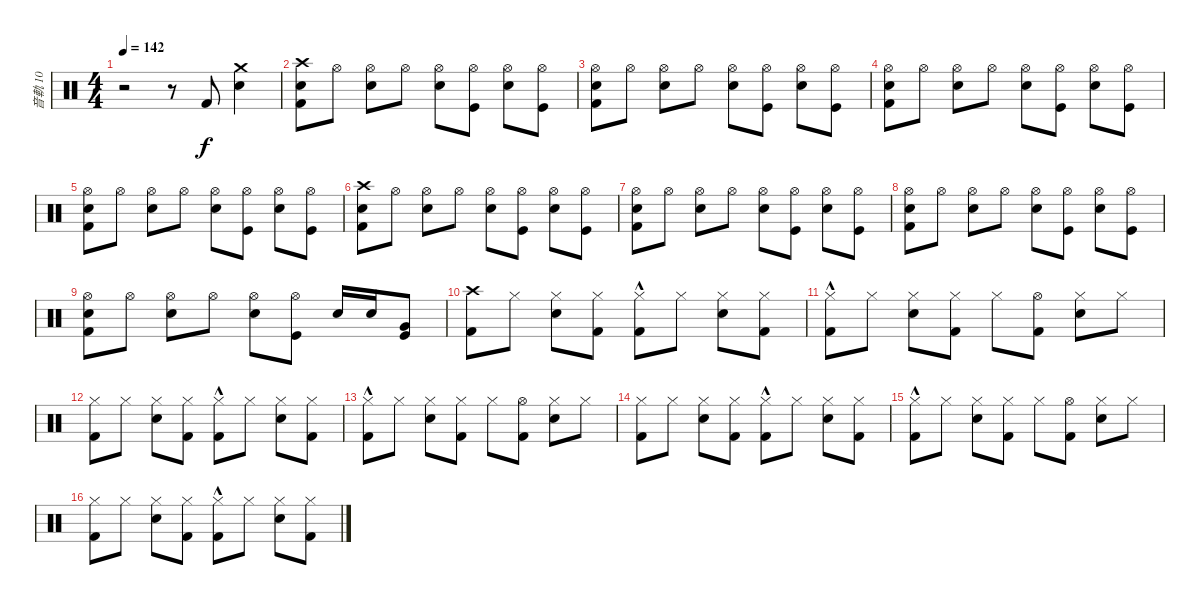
\track ("音軌 10" "音軌 10") {instrument percussion}
\staff {score}
\articulation defaults
\ts (4 4)
\tempo 142
\clef neutral
\ks c
r.2{dy f} r.8 "Kick (hit) 2".8 ("Crash medium (hit)" "Electric Snare (hit)").4 |
("Crash high (hit)" "Electric Snare (hit)" "Kick (hit) 2").8 "Hi-Hat (open)".8 ("Hi-Hat (open)" "Electric Snare (hit)").8 "Hi-Hat (open)".8 ("Hi-Hat (open)" "Electric Snare (hit)").8 ("Hi-Hat (open)" "Kick (hit)").8 ("Hi-Hat (open)" "Electric Snare (hit)").8 ("Hi-Hat (open)" "Kick (hit)").8 |
("Hi-Hat (open)" "Electric Snare (hit)" "Kick (hit) 2").8 "Hi-Hat (open)".8 ("Hi-Hat (open)" "Electric Snare (hit)").8 "Hi-Hat (open)".8 ("Hi-Hat (open)" "Electric Snare (hit)").8 ("Hi-Hat (open)" "Kick (hit)").8 ("Hi-Hat (open)" "Electric Snare (hit)").8 ("Hi-Hat (open)" "Kick (hit)").8 |
("Hi-Hat (open)" "Electric Snare (hit)" "Kick (hit) 2").8 "Hi-Hat (open)".8 ("Hi-Hat (open)" "Electric Snare (hit)").8 "Hi-Hat (open)".8 ("Hi-Hat (open)" "Electric Snare (hit)").8 ("Hi-Hat (open)" "Kick (hit)").8 ("Hi-Hat (open)" "Electric Snare (hit)").8 ("Hi-Hat (open)" "Kick (hit)").8 |
("Hi-Hat (open)" "Electric Snare (hit)" "Kick (hit) 2").8 "Hi-Hat (open)".8 ("Hi-Hat (open)" "Electric Snare (hit)").8 "Hi-Hat (open)".8 ("Hi-Hat (open)" "Electric Snare (hit)").8 ("Hi-Hat (open)" "Kick (hit)").8 ("Hi-Hat (open)" "Electric Snare (hit)").8 ("Hi-Hat (open)" "Kick (hit)").8 |
("Crash high (hit)" "Electric Snare (hit)" "Kick (hit) 2").8 "Hi-Hat (open)".8 ("Hi-Hat (open)" "Electric Snare (hit)").8 "Hi-Hat (open)".8 ("Hi-Hat (open)" "Electric Snare (hit)").8 ("Hi-Hat (open)" "Kick (hit)").8 ("Hi-Hat (open)" "Electric Snare (hit)").8 ("Hi-Hat (open)" "Kick (hit)").8 |
("Hi-Hat (open)" "Electric Snare (hit)" "Kick (hit) 2").8 "Hi-Hat (open)".8 ("Hi-Hat (open)" "Electric Snare (hit)").8 "Hi-Hat (open)".8 ("Hi-Hat (open)" "Electric Snare (hit)").8 ("Hi-Hat (open)" "Kick (hit)").8 ("Hi-Hat (open)" "Electric Snare (hit)").8 ("Hi-Hat (open)" "Kick (hit)").8 |
("Hi-Hat (open)" "Electric Snare (hit)" "Kick (hit) 2").8 "Hi-Hat (open)".8 ("Hi-Hat (open)" "Electric Snare (hit)").8 "Hi-Hat (open)".8 ("Hi-Hat (open)" "Electric Snare (hit)").8 ("Hi-Hat (open)" "Kick (hit)").8 ("Hi-Hat (open)" "Electric Snare (hit)").8 ("Hi-Hat (open)" "Kick (hit)").8 |
("Hi-Hat (open)" "Electric Snare (hit)" "Kick (hit) 2").8 "Hi-Hat (open)".8 ("Hi-Hat (open)" "Electric Snare (hit)").8 "Hi-Hat (open)".8 ("Hi-Hat (open)" "Electric Snare (hit)").8 ("Hi-Hat (open)" "Kick (hit)").8 "Electric Snare (hit)".16 "Electric Snare (hit)".16 ("Very Low Tom (hit)" "Kick (hit)").8 |
("Crash high (hit)" "Kick (hit) 2").8 "Hi-Hat (closed)".8 ("Hi-Hat (closed)" "Electric Snare (hit)").8 ("Hi-Hat (closed)" "Kick (hit) 2").8 ("Hi-Hat (closed)"{hac} "Kick (hit) 2").8 "Hi-Hat (closed)".8 ("Hi-Hat (closed)" "Electric Snare (hit)").8 ("Hi-Hat (closed)" "Kick (hit) 2").8 |
("Hi-Hat (closed)"{hac} "Kick (hit) 2").8 "Hi-Hat (closed)".8 ("Hi-Hat (closed)" "Electric Snare (hit)").8 ("Hi-Hat (closed)" "Kick (hit) 2").8 "Hi-Hat (closed)".8 ("Hi-Hat (open)" "Kick (hit) 2").8 ("Hi-Hat (closed)" "Electric Snare (hit)").8 "Hi-Hat (closed)".8 |
("Hi-Hat (closed)" "Kick (hit) 2").8 "Hi-Hat (closed)".8 ("Hi-Hat (closed)" "Electric Snare (hit)").8 ("Hi-Hat (closed)" "Kick (hit) 2").8 ("Hi-Hat (closed)"{hac} "Kick (hit) 2").8 "Hi-Hat (closed)".8 ("Hi-Hat (closed)" "Electric Snare (hit)").8 ("Hi-Hat (closed)" "Kick (hit) 2").8 |
("Hi-Hat (closed)"{hac} "Kick (hit) 2").8 "Hi-Hat (closed)".8 ("Hi-Hat (closed)" "Electric Snare (hit)").8 ("Hi-Hat (closed)" "Kick (hit) 2").8 "Hi-Hat (closed)".8 ("Hi-Hat (open)" "Kick (hit) 2").8 ("Hi-Hat (closed)" "Electric Snare (hit)").8 "Hi-Hat (closed)".8 |
("Hi-Hat (closed)" "Kick (hit) 2").8 "Hi-Hat (closed)".8 ("Hi-Hat (closed)" "Electric Snare (hit)").8 ("Hi-Hat (closed)" "Kick (hit) 2").8 ("Hi-Hat (closed)"{hac} "Kick (hit) 2").8 "Hi-Hat (closed)".8 ("Hi-Hat (closed)" "Electric Snare (hit)").8 ("Hi-Hat (closed)" "Kick (hit) 2").8 |
("Hi-Hat (closed)"{hac} "Kick (hit) 2").8 "Hi-Hat (closed)".8 ("Hi-Hat (closed)" "Electric Snare (hit)").8 ("Hi-Hat (closed)" "Kick (hit) 2").8 "Hi-Hat (closed)".8 ("Hi-Hat (open)" "Kick (hit) 2").8 ("Hi-Hat (closed)" "Electric Snare (hit)").8 "Hi-Hat (closed)".8 |
("Hi-Hat (closed)" "Kick (hit) 2").8 "Hi-Hat (closed)".8 ("Hi-Hat (closed)" "Electric Snare (hit)").8 ("Hi-Hat (closed)" "Kick (hit) 2").8 ("Hi-Hat (closed)"{hac} "Kick (hit) 2").8 "Hi-Hat (closed)".8 ("Hi-Hat (closed)" "Electric Snare (hit)").8 ("Hi-Hat (closed)" "Kick (hit) 2").8
